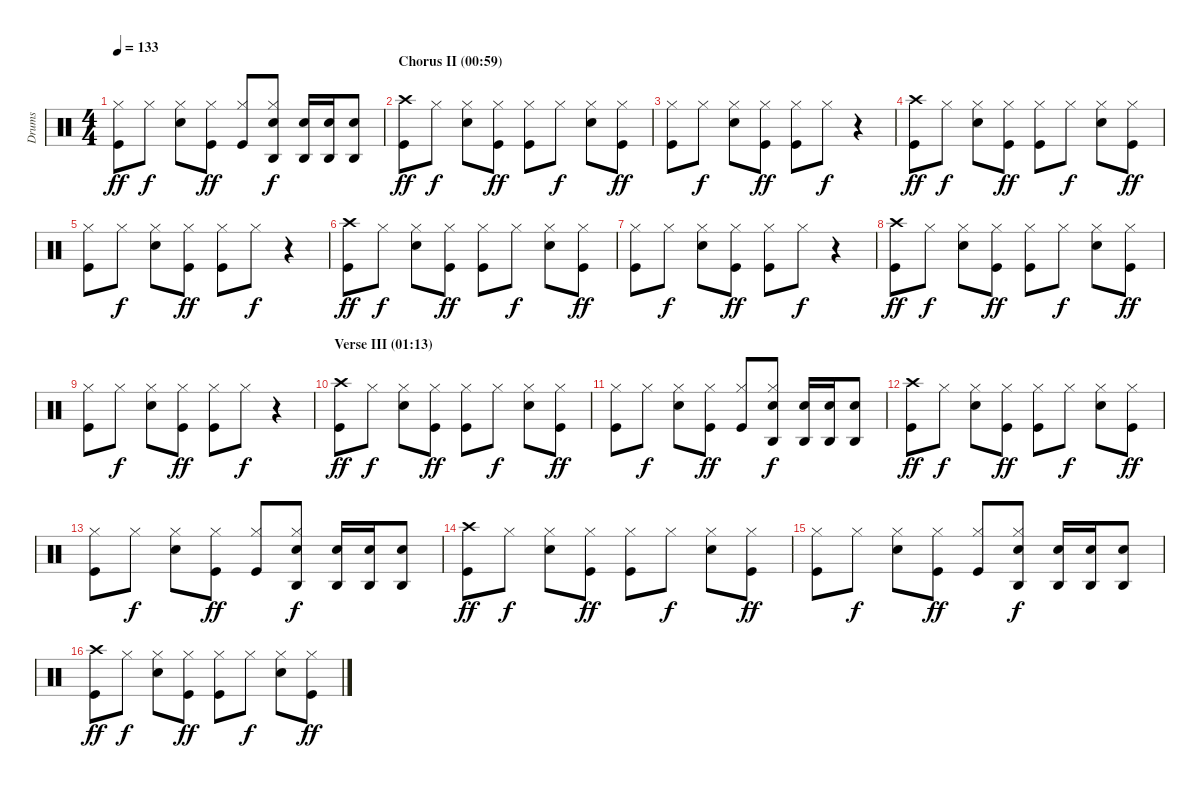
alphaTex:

\track ("Drums" "Drums") {instrument percussion}
\staff {score}
\articulation defaults
\ts (4 4)
\tempo 133
\clef neutral
\ks c
("Hi-Hat (closed)" "Kick (hit)").8{dy ff} "Hi-Hat (closed)".8{dy f} ("Hi-Hat (closed)" "Electric Snare (hit)").8 ("Hi-Hat (closed)" "Kick (hit)").8{dy ff} ("Hi-Hat (closed)" "Kick (hit)").8 ("Agogo high (hit)" "Hi-Hat (closed)" "Electric Snare (hit)").8{dy f} ("Agogo high (hit)" "Electric Snare (hit)").16 ("Agogo high (hit)" "Electric Snare (hit)").16 ("Agogo high (hit)" "Electric Snare (hit)").8 |
\section ("" "Chorus II (00:59) ")
("Crash high (hit)" "Kick (hit)").8{dy ff} "Hi-Hat (closed)".8{dy f} ("Hi-Hat (closed)" "Electric Snare (hit)").8 ("Hi-Hat (closed)" "Kick (hit)").8{dy ff} ("Hi-Hat (closed)" "Kick (hit)").8 "Hi-Hat (closed)".8{dy f} ("Hi-Hat (closed)" "Electric Snare (hit)").8 ("Hi-Hat (closed)" "Kick (hit)").8{dy ff} |
("Hi-Hat (closed)" "Kick (hit)").8 "Hi-Hat (closed)".8{dy f} ("Hi-Hat (closed)" "Electric Snare (hit)").8 ("Hi-Hat (closed)" "Kick (hit)").8{dy ff} ("Hi-Hat (closed)" "Kick (hit)").8 "Hi-Hat (closed)".8{dy f} r.4 |
("Crash high (hit)" "Kick (hit)").8{dy ff} "Hi-Hat (closed)".8{dy f} ("Hi-Hat (closed)" "Electric Snare (hit)").8 ("Hi-Hat (closed)" "Kick (hit)").8{dy ff} ("Hi-Hat (closed)" "Kick (hit)").8 "Hi-Hat (closed)".8{dy f} ("Hi-Hat (closed)" "Electric Snare (hit)").8 ("Hi-Hat (closed)" "Kick (hit)").8{dy ff} |
("Hi-Hat (closed)" "Kick (hit)").8 "Hi-Hat (closed)".8{dy f} ("Hi-Hat (closed)" "Electric Snare (hit)").8 ("Hi-Hat (closed)" "Kick (hit)").8{dy ff} ("Hi-Hat (closed)" "Kick (hit)").8 "Hi-Hat (closed)".8{dy f} r.4 |
("Crash high (hit)" "Kick (hit)").8{dy ff} "Hi-Hat (closed)".8{dy f} ("Hi-Hat (closed)" "Electric Snare (hit)").8 ("Hi-Hat (closed)" "Kick (hit)").8{dy ff} ("Hi-Hat (closed)" "Kick (hit)").8 "Hi-Hat (closed)".8{dy f} ("Hi-Hat (closed)" "Electric Snare (hit)").8 ("Hi-Hat (closed)" "Kick (hit)").8{dy ff} |
("Hi-Hat (closed)" "Kick (hit)").8 "Hi-Hat (closed)".8{dy f} ("Hi-Hat (closed)" "Electric Snare (hit)").8 ("Hi-Hat (closed)" "Kick (hit)").8{dy ff} ("Hi-Hat (closed)" "Kick (hit)").8 "Hi-Hat (closed)".8{dy f} r.4 |
("Crash high (hit)" "Kick (hit)").8{dy ff} "Hi-Hat (closed)".8{dy f} ("Hi-Hat (closed)" "Electric Snare (hit)").8 ("Hi-Hat (closed)" "Kick (hit)").8{dy ff} ("Hi-Hat (closed)" "Kick (hit)").8 "Hi-Hat (closed)".8{dy f} ("Hi-Hat (closed)" "Electric Snare (hit)").8 ("Hi-Hat (closed)" "Kick (hit)").8{dy ff} |
("Hi-Hat (closed)" "Kick (hit)").8 "Hi-Hat (closed)".8{dy f} ("Hi-Hat (closed)" "Electric Snare (hit)").8 ("Hi-Hat (closed)" "Kick (hit)").8{dy ff} ("Hi-Hat (closed)" "Kick (hit)").8 "Hi-Hat (closed)".8{dy f} r.4 |
\section ("" "Verse III (01:13)")
("Crash high (hit)" "Kick (hit)").8{dy ff} "Hi-Hat (closed)".8{dy f} ("Hi-Hat (closed)" "Electric Snare (hit)").8 ("Hi-Hat (closed)" "Kick (hit)").8{dy ff} ("Hi-Hat (closed)" "Kick (hit)").8 "Hi-Hat (closed)".8{dy f} ("Hi-Hat (closed)" "Electric Snare (hit)").8 ("Hi-Hat (closed)" "Kick (hit)").8{dy ff} |
("Hi-Hat (closed)" "Kick (hit)").8 "Hi-Hat (closed)".8{dy f} ("Hi-Hat (closed)" "Electric Snare (hit)").8 ("Hi-Hat (closed)" "Kick (hit)").8{dy ff} ("Hi-Hat (closed)" "Kick (hit)").8 ("Agogo high (hit)" "Hi-Hat (closed)" "Electric Snare (hit)").8{dy f} ("Agogo high (hit)" "Electric Snare (hit)").16 ("Agogo high (hit)" "Electric Snare (hit)").16 ("Agogo high (hit)" "Electric Snare (hit)").8 |
("Crash high (hit)" "Kick (hit)").8{dy ff} "Hi-Hat (closed)".8{dy f} ("Hi-Hat (closed)" "Electric Snare (hit)").8 ("Hi-Hat (closed)" "Kick (hit)").8{dy ff} ("Hi-Hat (closed)" "Kick (hit)").8 "Hi-Hat (closed)".8{dy f} ("Hi-Hat (closed)" "Electric Snare (hit)").8 ("Hi-Hat (closed)" "Kick (hit)").8{dy ff} |
("Hi-Hat (closed)" "Kick (hit)").8 "Hi-Hat (closed)".8{dy f} ("Hi-Hat (closed)" "Electric Snare (hit)").8 ("Hi-Hat (closed)" "Kick (hit)").8{dy ff} ("Hi-Hat (closed)" "Kick (hit)").8 ("Agogo high (hit)" "Hi-Hat (closed)" "Electric Snare (hit)").8{dy f} ("Agogo high (hit)" "Electric Snare (hit)").16 ("Agogo high (hit)" "Electric Snare (hit)").16 ("Agogo high (hit)" "Electric Snare (hit)").8 |
("Crash high (hit)" "Kick (hit)").8{dy ff} "Hi-Hat (closed)".8{dy f} ("Hi-Hat (closed)" "Electric Snare (hit)").8 ("Hi-Hat (closed)" "Kick (hit)").8{dy ff} ("Hi-Hat (closed)" "Kick (hit)").8 "Hi-Hat (closed)".8{dy f} ("Hi-Hat (closed)" "Electric Snare (hit)").8 ("Hi-Hat (closed)" "Kick (hit)").8{dy ff} |
("Hi-Hat (closed)" "Kick (hit)").8 "Hi-Hat (closed)".8{dy f} ("Hi-Hat (closed)" "Electric Snare (hit)").8 ("Hi-Hat (closed)" "Kick (hit)").8{dy ff} ("Hi-Hat (closed)" "Kick (hit)").8 ("Agogo high (hit)" "Hi-Hat (closed)" "Electric Snare (hit)").8{dy f} ("Agogo high (hit)" "Electric Snare (hit)").16 ("Agogo high (hit)" "Electric Snare (hit)").16 ("Agogo high (hit)" "Electric Snare (hit)").8 |
("Crash high (hit)" "Kick (hit)").8{dy ff} "Hi-Hat (closed)".8{dy f} ("Hi-Hat (closed)" "Electric Snare (hit)").8 ("Hi-Hat (closed)" "Kick (hit)").8{dy ff} ("Hi-Hat (closed)" "Kick (hit)").8 "Hi-Hat (closed)".8{dy f} ("Hi-Hat (closed)" "Electric Snare (hit)").8 ("Hi-Hat (closed)" "Kick (hit)").8{dy ff}
